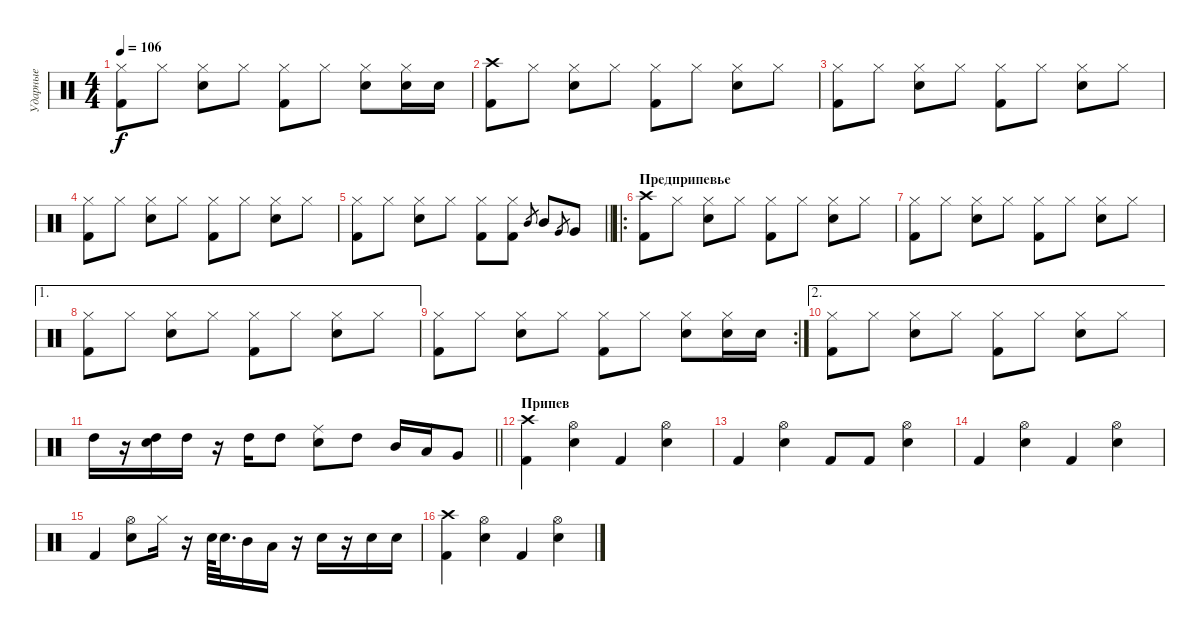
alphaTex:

\track ("Ударные" "Ударные") {instrument percussion}
\staff {score}
\articulation defaults
\ts (4 4)
\tempo 106
\clef neutral
\ks c
("Kick (hit) 2" "Hi-Hat (closed)").8{dy f} "Hi-Hat (closed)".8 ("Electric Snare (hit)" "Hi-Hat (closed)").8 "Hi-Hat (closed)".8 ("Kick (hit) 2" "Hi-Hat (closed)").8 "Hi-Hat (closed)".8 ("Hi-Hat (closed)" "Electric Snare (hit)").8 ("Electric Snare (hit)" "Hi-Hat (closed)").16 "Electric Snare (hit)".16 |
("Kick (hit) 2" "Crash high (hit)").8 "Hi-Hat (closed)".8 ("Electric Snare (hit)" "Hi-Hat (closed)").8 "Hi-Hat (closed)".8 ("Kick (hit) 2" "Hi-Hat (closed)").8 "Hi-Hat (closed)".8 ("Electric Snare (hit)" "Hi-Hat (closed)").8 "Hi-Hat (closed)".8 |
("Kick (hit) 2" "Hi-Hat (closed)").8 "Hi-Hat (closed)".8 ("Electric Snare (hit)" "Hi-Hat (closed)").8 "Hi-Hat (closed)".8 ("Kick (hit) 2" "Hi-Hat (closed)").8 "Hi-Hat (closed)".8 ("Electric Snare (hit)" "Hi-Hat (closed)").8 "Hi-Hat (closed)".8 |
("Kick (hit) 2" "Hi-Hat (closed)").8 "Hi-Hat (closed)".8 ("Electric Snare (hit)" "Hi-Hat (closed)").8 "Hi-Hat (closed)".8 ("Kick (hit) 2" "Hi-Hat (closed)").8 "Hi-Hat (closed)".8 ("Electric Snare (hit)" "Hi-Hat (closed)").8 "Hi-Hat (closed)".8 |
\barLineRight lightlight
("Kick (hit) 2" "Hi-Hat (closed)").8 "Hi-Hat (closed)".8 ("Electric Snare (hit)" "Hi-Hat (closed)").8 "Hi-Hat (closed)".8 ("Kick (hit) 2" "Hi-Hat (closed)").8 ("Hi-Hat (closed)" "Kick (hit) 2").8 "Mid Tom (hit)".8{gr} "Mid Tom (hit)".8 "Very Low Tom (hit)".8{gr} "Very Low Tom (hit)".8 |
\ro
\section ("" "Предприпевье")
("Kick (hit) 2" "Crash high (hit)").8 "Hi-Hat (closed)".8 ("Electric Snare (hit)" "Hi-Hat (closed)").8 "Hi-Hat (closed)".8 ("Kick (hit) 2" "Hi-Hat (closed)").8 "Hi-Hat (closed)".8 ("Electric Snare (hit)" "Hi-Hat (closed)").8 "Hi-Hat (closed)".8 |
("Kick (hit) 2" "Hi-Hat (closed)").8 "Hi-Hat (closed)".8 ("Electric Snare (hit)" "Hi-Hat (closed)").8 "Hi-Hat (closed)".8 ("Kick (hit) 2" "Hi-Hat (closed)").8 "Hi-Hat (closed)".8 ("Electric Snare (hit)" "Hi-Hat (closed)").8 "Hi-Hat (closed)".8 |
\ae 1
("Kick (hit) 2" "Hi-Hat (closed)").8 "Hi-Hat (closed)".8 ("Electric Snare (hit)" "Hi-Hat (closed)").8 "Hi-Hat (closed)".8 ("Kick (hit) 2" "Hi-Hat (closed)").8 "Hi-Hat (closed)".8 ("Electric Snare (hit)" "Hi-Hat (closed)").8 "Hi-Hat (closed)".8 |
\rc 2
("Kick (hit) 2" "Hi-Hat (closed)").8 "Hi-Hat (closed)".8 ("Electric Snare (hit)" "Hi-Hat (closed)").8 "Hi-Hat (closed)".8 ("Kick (hit) 2" "Hi-Hat (closed)").8 "Hi-Hat (closed)".8 ("Hi-Hat (closed)" "Electric Snare (hit)").8 ("Electric Snare (hit)" "Hi-Hat (closed)").16 "Electric Snare (hit)".16 |
\ae 2
("Kick (hit) 2" "Hi-Hat (closed)").8 "Hi-Hat (closed)".8 ("Electric Snare (hit)" "Hi-Hat (closed)").8 "Hi-Hat (closed)".8 ("Kick (hit) 2" "Hi-Hat (closed)").8 "Hi-Hat (closed)".8 ("Electric Snare (hit)" "Hi-Hat (closed)").8 "Hi-Hat (closed)".8 |
\barLineRight lightlight "High Tom (hit)".16
r.16 ("High Tom (hit)" "Electric Snare (hit)").16 "High Tom (hit)".16 r.16 "High Tom (hit)".16 "High Tom (hit)".8 ("Electric Snare (hit)" "Ride (middle)").8 "High Tom (hit)".8 "Mid Tom (hit)".16 "Low Tom (hit)".16 "Very Low Tom (hit)".8 |
\section ("" "Припев")
("Crash high (hit)" "Kick (hit) 2").4 ("Electric Snare (hit)" "Hi-Hat (open)").4 "Kick (hit) 2".4 ("Electric Snare (hit)" "Hi-Hat (open)").4 |
"Kick (hit) 2".4 ("Electric Snare (hit)" "Hi-Hat (open)").4 "Kick (hit) 2".8 "Kick (hit) 2".8 ("Electric Snare (hit)" "Hi-Hat (open)").4 |
"Kick (hit) 2".4 ("Electric Snare (hit)" "Hi-Hat (open)").4 "Kick (hit) 2".4 ("Electric Snare (hit)" "Hi-Hat (open)").4 |
"Kick (hit) 2".4 ("Electric Snare (hit)" "Hi-Hat (open)").8 "Hi-Hat (closed)".16 r.16 "Electric Snare (hit)".64 "Electric Snare (hit)".32{d} "Mid Tom (hit)".16 "Low Tom (hit)".16 r.16 "Electric Snare (hit)".16 r.16 "Electric Snare (hit)".16 "Electric Snare (hit)".16 |
("Crash high (hit)" "Kick (hit) 2").4 ("Electric Snare (hit)" "Hi-Hat (open)").4 "Kick (hit) 2".4 ("Electric Snare (hit)" "Hi-Hat (open)").4
